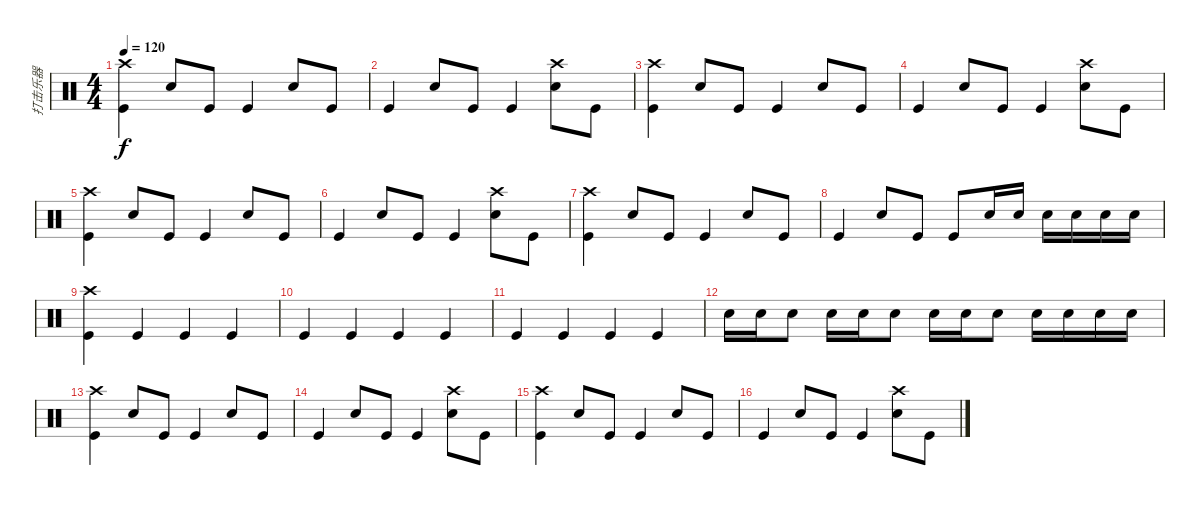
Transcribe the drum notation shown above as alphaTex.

\track ("打击乐器" "打击乐器") {instrument percussion}
\staff {score}
\articulation defaults
\ts (4 4)
\tempo 120
\clef neutral
\ks c
("Kick (hit)" "Crash high (hit)").4{dy f} "Electric Snare (hit)".8 "Kick (hit)".8 "Kick (hit)".4 "Electric Snare (hit)".8 "Kick (hit)".8 |
"Kick (hit)".4 "Electric Snare (hit)".8 "Kick (hit)".8 "Kick (hit)".4 ("Electric Snare (hit)" "Crash high (hit)").8 "Kick (hit)".8 |
("Kick (hit)" "Crash high (hit)").4 "Electric Snare (hit)".8 "Kick (hit)".8 "Kick (hit)".4 "Electric Snare (hit)".8 "Kick (hit)".8 |
"Kick (hit)".4 "Electric Snare (hit)".8 "Kick (hit)".8 "Kick (hit)".4 ("Electric Snare (hit)" "Crash high (hit)").8 "Kick (hit)".8 |
("Kick (hit)" "Crash high (hit)").4 "Electric Snare (hit)".8 "Kick (hit)".8 "Kick (hit)".4 "Electric Snare (hit)".8 "Kick (hit)".8 |
"Kick (hit)".4 "Electric Snare (hit)".8 "Kick (hit)".8 "Kick (hit)".4 ("Electric Snare (hit)" "Crash high (hit)").8 "Kick (hit)".8 |
("Kick (hit)" "Crash high (hit)").4 "Electric Snare (hit)".8 "Kick (hit)".8 "Kick (hit)".4 "Electric Snare (hit)".8 "Kick (hit)".8 |
"Kick (hit)".4 "Electric Snare (hit)".8 "Kick (hit)".8 "Kick (hit)".8 "Electric Snare (hit)".16 "Electric Snare (hit)".16 "Electric Snare (hit)".16 "Electric Snare (hit)".16 "Electric Snare (hit)".16 "Electric Snare (hit)".16 |
("Kick (hit)" "Crash high (hit)").4 "Kick (hit)".4 "Kick (hit)".4 "Kick (hit)".4 |
"Kick (hit)".4 "Kick (hit)".4 "Kick (hit)".4 "Kick (hit)".4 |
"Kick (hit)".4 "Kick (hit)".4 "Kick (hit)".4 "Kick (hit)".4 |
"Electric Snare (hit)".16 "Electric Snare (hit)".16 "Electric Snare (hit)".8 "Electric Snare (hit)".16 "Electric Snare (hit)".16 "Electric Snare (hit)".8 "Electric Snare (hit)".16 "Electric Snare (hit)".16 "Electric Snare (hit)".8 "Electric Snare (hit)".16 "Electric Snare (hit)".16 "Electric Snare (hit)".16 "Electric Snare (hit)".16 |
("Kick (hit)" "Crash high (hit)").4 "Electric Snare (hit)".8 "Kick (hit)".8 "Kick (hit)".4 "Electric Snare (hit)".8 "Kick (hit)".8 |
"Kick (hit)".4 "Electric Snare (hit)".8 "Kick (hit)".8 "Kick (hit)".4 ("Electric Snare (hit)" "Crash high (hit)").8 "Kick (hit)".8 |
("Kick (hit)" "Crash high (hit)").4 "Electric Snare (hit)".8 "Kick (hit)".8 "Kick (hit)".4 "Electric Snare (hit)".8 "Kick (hit)".8 |
"Kick (hit)".4 "Electric Snare (hit)".8 "Kick (hit)".8 "Kick (hit)".4 ("Electric Snare (hit)" "Crash high (hit)").8 "Kick (hit)".8
